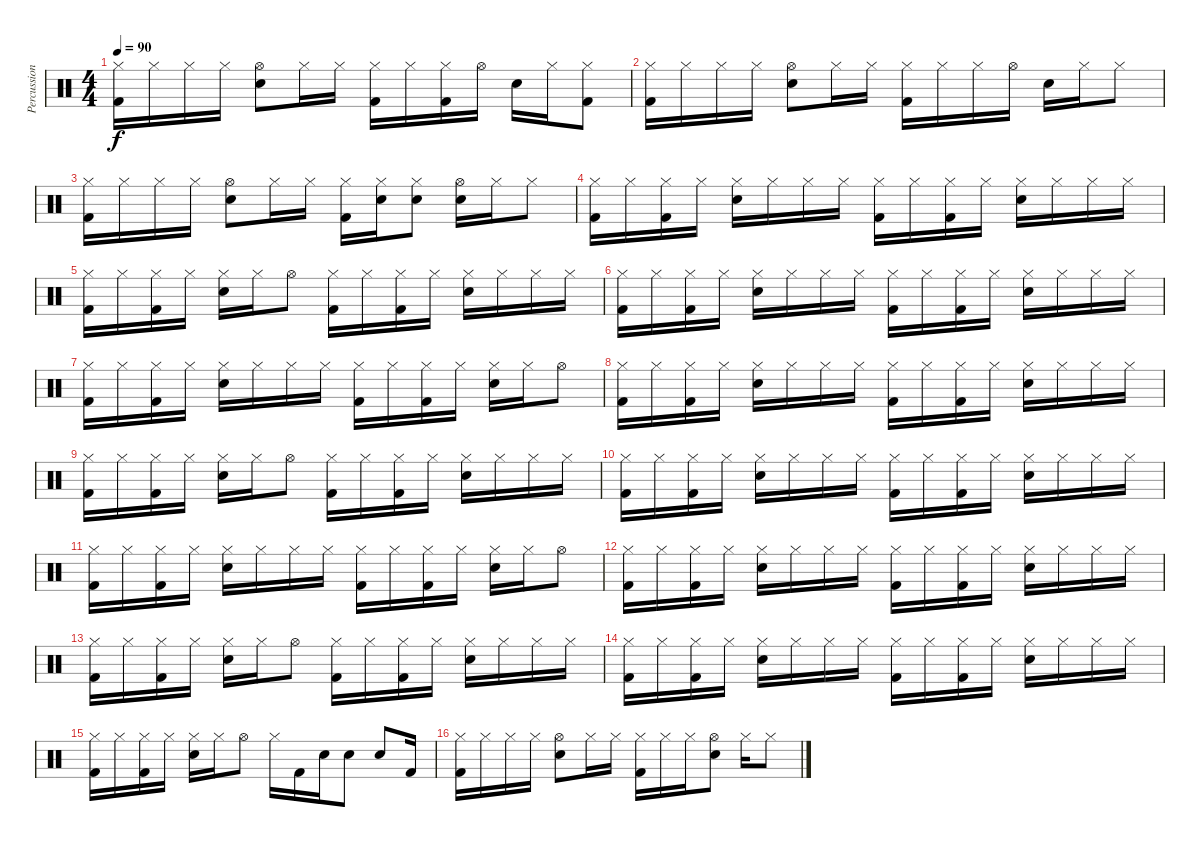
\track ("Percussion" "Percussion") {instrument percussion}
\staff {score}
\articulation defaults
\ts (4 4)
\tempo 90
\clef neutral
\ks c
("Hi-Hat (closed)" "Kick (hit) 2").16{dy f} "Hi-Hat (closed)".16 "Hi-Hat (closed)".16 "Hi-Hat (closed)".16 ("Hi-Hat (open)" "Electric Snare (hit)").8 "Hi-Hat (closed)".16 "Hi-Hat (closed)".16 ("Hi-Hat (closed)" "Kick (hit) 2").16 "Hi-Hat (closed)".16 ("Hi-Hat (closed)" "Kick (hit) 2").16 "Hi-Hat (open)".16 "Electric Snare (hit)".16 "Hi-Hat (closed)".16 ("Hi-Hat (closed)" "Kick (hit) 2").8 |
("Hi-Hat (closed)" "Kick (hit) 2").16 "Hi-Hat (closed)".16 "Hi-Hat (closed)".16 "Hi-Hat (closed)".16 ("Hi-Hat (open)" "Electric Snare (hit)").8 "Hi-Hat (closed)".16 "Hi-Hat (closed)".16 ("Hi-Hat (closed)" "Kick (hit) 2").16 "Hi-Hat (closed)".16 "Hi-Hat (closed)".16 "Hi-Hat (open)".16 "Electric Snare (hit)".16 "Hi-Hat (closed)".16 "Hi-Hat (closed)".8 |
("Hi-Hat (closed)" "Kick (hit) 2").16 "Hi-Hat (closed)".16 "Hi-Hat (closed)".16 "Hi-Hat (closed)".16 ("Hi-Hat (open)" "Electric Snare (hit)").8 "Hi-Hat (closed)".16 "Hi-Hat (closed)".16 ("Hi-Hat (closed)" "Kick (hit) 2").16 ("Hi-Hat (closed)" "Electric Snare (hit)").16 ("Hi-Hat (closed)" "Electric Snare (hit)").8 ("Hi-Hat (open)" "Electric Snare (hit)").16 "Hi-Hat (closed)".16 "Hi-Hat (closed)".8 |
("Hi-Hat (closed)" "Kick (hit) 2").16 "Hi-Hat (closed)".16 ("Hi-Hat (closed)" "Kick (hit) 2").16 "Hi-Hat (closed)".16 ("Hi-Hat (closed)" "Electric Snare (hit)").16 "Hi-Hat (closed)".16 "Hi-Hat (closed)".16 "Hi-Hat (closed)".16 ("Hi-Hat (closed)" "Kick (hit) 2").16 "Hi-Hat (closed)".16 ("Hi-Hat (closed)" "Kick (hit) 2").16 "Hi-Hat (closed)".16 ("Hi-Hat (closed)" "Electric Snare (hit)").16 "Hi-Hat (closed)".16 "Hi-Hat (closed)".16 "Hi-Hat (closed)".16 |
("Hi-Hat (closed)" "Kick (hit) 2").16 "Hi-Hat (closed)".16 ("Hi-Hat (closed)" "Kick (hit) 2").16 "Hi-Hat (closed)".16 ("Hi-Hat (closed)" "Electric Snare (hit)").16 "Hi-Hat (closed)".16 "Hi-Hat (open)".8 ("Hi-Hat (closed)" "Kick (hit) 2").16 "Hi-Hat (closed)".16 ("Hi-Hat (closed)" "Kick (hit) 2").16 "Hi-Hat (closed)".16 ("Hi-Hat (closed)" "Electric Snare (hit)").16 "Hi-Hat (closed)".16 "Hi-Hat (closed)".16 "Hi-Hat (closed)".16 |
("Hi-Hat (closed)" "Kick (hit) 2").16 "Hi-Hat (closed)".16 ("Hi-Hat (closed)" "Kick (hit) 2").16 "Hi-Hat (closed)".16 ("Hi-Hat (closed)" "Electric Snare (hit)").16 "Hi-Hat (closed)".16 "Hi-Hat (closed)".16 "Hi-Hat (closed)".16 ("Hi-Hat (closed)" "Kick (hit) 2").16 "Hi-Hat (closed)".16 ("Hi-Hat (closed)" "Kick (hit) 2").16 "Hi-Hat (closed)".16 ("Hi-Hat (closed)" "Electric Snare (hit)").16 "Hi-Hat (closed)".16 "Hi-Hat (closed)".16 "Hi-Hat (closed)".16 |
("Hi-Hat (closed)" "Kick (hit) 2").16 "Hi-Hat (closed)".16 ("Hi-Hat (closed)" "Kick (hit) 2").16 "Hi-Hat (closed)".16 ("Hi-Hat (closed)" "Electric Snare (hit)").16 "Hi-Hat (closed)".16 "Hi-Hat (closed)".16 "Hi-Hat (closed)".16 ("Hi-Hat (closed)" "Kick (hit) 2").16 "Hi-Hat (closed)".16 ("Hi-Hat (closed)" "Kick (hit) 2").16 "Hi-Hat (closed)".16 ("Hi-Hat (closed)" "Electric Snare (hit)").16 "Hi-Hat (closed)".16 "Hi-Hat (open)".8 |
("Hi-Hat (closed)" "Kick (hit) 2").16 "Hi-Hat (closed)".16 ("Hi-Hat (closed)" "Kick (hit) 2").16 "Hi-Hat (closed)".16 ("Hi-Hat (closed)" "Electric Snare (hit)").16 "Hi-Hat (closed)".16 "Hi-Hat (closed)".16 "Hi-Hat (closed)".16 ("Hi-Hat (closed)" "Kick (hit) 2").16 "Hi-Hat (closed)".16 ("Hi-Hat (closed)" "Kick (hit) 2").16 "Hi-Hat (closed)".16 ("Hi-Hat (closed)" "Electric Snare (hit)").16 "Hi-Hat (closed)".16 "Hi-Hat (closed)".16 "Hi-Hat (closed)".16 |
("Hi-Hat (closed)" "Kick (hit) 2").16 "Hi-Hat (closed)".16 ("Hi-Hat (closed)" "Kick (hit) 2").16 "Hi-Hat (closed)".16 ("Hi-Hat (closed)" "Electric Snare (hit)").16 "Hi-Hat (closed)".16 "Hi-Hat (open)".8 ("Hi-Hat (closed)" "Kick (hit) 2").16 "Hi-Hat (closed)".16 ("Hi-Hat (closed)" "Kick (hit) 2").16 "Hi-Hat (closed)".16 ("Hi-Hat (closed)" "Electric Snare (hit)").16 "Hi-Hat (closed)".16 "Hi-Hat (closed)".16 "Hi-Hat (closed)".16 |
("Hi-Hat (closed)" "Kick (hit) 2").16 "Hi-Hat (closed)".16 ("Hi-Hat (closed)" "Kick (hit) 2").16 "Hi-Hat (closed)".16 ("Hi-Hat (closed)" "Electric Snare (hit)").16 "Hi-Hat (closed)".16 "Hi-Hat (closed)".16 "Hi-Hat (closed)".16 ("Hi-Hat (closed)" "Kick (hit) 2").16 "Hi-Hat (closed)".16 ("Hi-Hat (closed)" "Kick (hit) 2").16 "Hi-Hat (closed)".16 ("Hi-Hat (closed)" "Electric Snare (hit)").16 "Hi-Hat (closed)".16 "Hi-Hat (closed)".16 "Hi-Hat (closed)".16 |
("Hi-Hat (closed)" "Kick (hit) 2").16 "Hi-Hat (closed)".16 ("Hi-Hat (closed)" "Kick (hit) 2").16 "Hi-Hat (closed)".16 ("Hi-Hat (closed)" "Electric Snare (hit)").16 "Hi-Hat (closed)".16 "Hi-Hat (closed)".16 "Hi-Hat (closed)".16 ("Hi-Hat (closed)" "Kick (hit) 2").16 "Hi-Hat (closed)".16 ("Hi-Hat (closed)" "Kick (hit) 2").16 "Hi-Hat (closed)".16 ("Hi-Hat (closed)" "Electric Snare (hit)").16 "Hi-Hat (closed)".16 "Hi-Hat (open)".8 |
("Hi-Hat (closed)" "Kick (hit) 2").16 "Hi-Hat (closed)".16 ("Hi-Hat (closed)" "Kick (hit) 2").16 "Hi-Hat (closed)".16 ("Hi-Hat (closed)" "Electric Snare (hit)").16 "Hi-Hat (closed)".16 "Hi-Hat (closed)".16 "Hi-Hat (closed)".16 ("Hi-Hat (closed)" "Kick (hit) 2").16 "Hi-Hat (closed)".16 ("Hi-Hat (closed)" "Kick (hit) 2").16 "Hi-Hat (closed)".16 ("Hi-Hat (closed)" "Electric Snare (hit)").16 "Hi-Hat (closed)".16 "Hi-Hat (closed)".16 "Hi-Hat (closed)".16 |
("Hi-Hat (closed)" "Kick (hit) 2").16 "Hi-Hat (closed)".16 ("Hi-Hat (closed)" "Kick (hit) 2").16 "Hi-Hat (closed)".16 ("Hi-Hat (closed)" "Electric Snare (hit)").16 "Hi-Hat (closed)".16 "Hi-Hat (open)".8 ("Hi-Hat (closed)" "Kick (hit) 2").16 "Hi-Hat (closed)".16 ("Hi-Hat (closed)" "Kick (hit) 2").16 "Hi-Hat (closed)".16 ("Hi-Hat (closed)" "Electric Snare (hit)").16 "Hi-Hat (closed)".16 "Hi-Hat (closed)".16 "Hi-Hat (closed)".16 |
("Hi-Hat (closed)" "Kick (hit) 2").16 "Hi-Hat (closed)".16 ("Hi-Hat (closed)" "Kick (hit) 2").16 "Hi-Hat (closed)".16 ("Hi-Hat (closed)" "Electric Snare (hit)").16 "Hi-Hat (closed)".16 "Hi-Hat (closed)".16 "Hi-Hat (closed)".16 ("Hi-Hat (closed)" "Kick (hit) 2").16 "Hi-Hat (closed)".16 ("Hi-Hat (closed)" "Kick (hit) 2").16 "Hi-Hat (closed)".16 ("Hi-Hat (closed)" "Electric Snare (hit)").16 "Hi-Hat (closed)".16 "Hi-Hat (closed)".16 "Hi-Hat (closed)".16 |
("Hi-Hat (closed)" "Kick (hit) 2").16 "Hi-Hat (closed)".16 ("Hi-Hat (closed)" "Kick (hit) 2").16 "Hi-Hat (closed)".16 ("Hi-Hat (closed)" "Electric Snare (hit)").16 "Hi-Hat (closed)".16 "Hi-Hat (open)".8 "Hi-Hat (closed)".16 "Kick (hit) 2".16 "Electric Snare (hit)".16 "Electric Snare (hit)".8 "Electric Snare (hit)".8 "Kick (hit) 2".16 |
("Hi-Hat (closed)" "Kick (hit) 2").16 "Hi-Hat (closed)".16 "Hi-Hat (closed)".16 "Hi-Hat (closed)".16 ("Hi-Hat (open)" "Electric Snare (hit)").8 "Hi-Hat (closed)".16 "Hi-Hat (closed)".16 ("Hi-Hat (closed)" "Kick (hit) 2").16 "Hi-Hat (closed)".16 "Hi-Hat (closed)".16 ("Hi-Hat (open)" "Electric Snare (hit)").8 "Hi-Hat (closed)".16 "Hi-Hat (closed)".8
